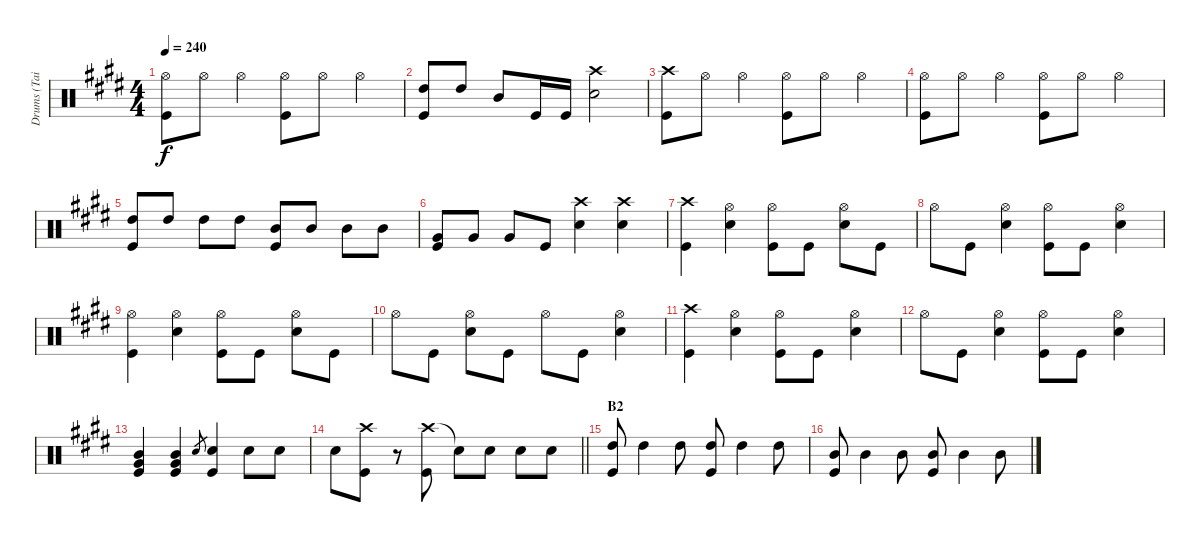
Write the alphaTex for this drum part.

\track ("Drums (Tainaka Ritsu)" "Drums (Tai") {instrument percussion}
\staff {score}
\articulation defaults
\ts (4 4)
\tempo 240
\clef neutral
\ks e
("Hi-Hat (open)" "Kick (hit)").8{dy f} "Hi-Hat (open)".8 "Hi-Hat (open)".4 ("Hi-Hat (open)" "Kick (hit)").8 "Hi-Hat (open)".8 "Hi-Hat (open)".4 |
("High Tom (hit)" "Kick (hit)").8 "High Tom (hit)".8 "Mid Tom (hit)".8 "Kick (hit)".16 "Kick (hit)".16 ("Crash high (hit)" "Snare (hit) 2").2 |
("Crash high (hit)" "Kick (hit)").8 "Hi-Hat (open)".8 "Hi-Hat (open)".4 ("Hi-Hat (open)" "Kick (hit)").8 "Hi-Hat (open)".8 "Hi-Hat (open)".4 |
("Hi-Hat (open)" "Kick (hit)").8 "Hi-Hat (open)".8 "Hi-Hat (open)".4 ("Hi-Hat (open)" "Kick (hit)").8 "Hi-Hat (open)".8 "Hi-Hat (open)".4 |
("High Tom (hit)" "Kick (hit)").8 "High Tom (hit)".8 "High Tom (hit)".8 "High Tom (hit)".8 ("Mid Tom (hit)" "Kick (hit)").8 "Mid Tom (hit)".8 "Mid Tom (hit)".8 "Mid Tom (hit)".8 |
("Very Low Tom (hit)" "Kick (hit)").8 "Very Low Tom (hit)".8 "Very Low Tom (hit)".8 "Kick (hit)".8 ("Crash high (hit)" "Snare (hit) 2").4 ("Crash high (hit)" "Snare (hit) 2").4 |
("Crash high (hit)" "Kick (hit)").4 ("Hi-Hat (open)" "Snare (hit) 2").4 ("Hi-Hat (open)" "Kick (hit)").8 "Kick (hit)".8 ("Hi-Hat (open)" "Snare (hit) 2").8 "Kick (hit)".8 |
"Hi-Hat (open)".8 "Kick (hit)".8 ("Hi-Hat (open)" "Snare (hit) 2").4 ("Hi-Hat (open)" "Kick (hit)").8 "Kick (hit)".8 ("Hi-Hat (open)" "Snare (hit) 2").4 |
("Hi-Hat (open)" "Kick (hit)").4 ("Hi-Hat (open)" "Snare (hit) 2").4 ("Hi-Hat (open)" "Kick (hit)").8 "Kick (hit)".8 ("Hi-Hat (open)" "Snare (hit) 2").8 "Kick (hit)".8 |
"Hi-Hat (open)".8 "Kick (hit)".8 ("Hi-Hat (open)" "Snare (hit) 2").8 "Kick (hit)".8 "Hi-Hat (open)".8 "Kick (hit)".8 ("Hi-Hat (open)" "Snare (hit) 2").4 |
("Crash high (hit)" "Kick (hit)").4 ("Hi-Hat (open)" "Snare (hit) 2").4 ("Hi-Hat (open)" "Kick (hit)").8 "Kick (hit)".8 ("Hi-Hat (open)" "Snare (hit) 2").4 |
"Hi-Hat (open)".8 "Kick (hit)".8 ("Hi-Hat (open)" "Snare (hit) 2").4 ("Hi-Hat (open)" "Kick (hit)").8 "Kick (hit)".8 ("Hi-Hat (open)" "Snare (hit) 2").4 |
("Mid Tom (hit)" "Very Low Tom (hit)" "Kick (hit)").4 ("Mid Tom (hit)" "Very Low Tom (hit)" "Kick (hit)").4 "Snare (hit) 2".8{gr} ("Snare (hit) 2" "Kick (hit)").4 "Snare (hit) 2".8 "Snare (hit) 2".8 |
\barLineRight lightlight "Snare (hit) 2".8
("Crash high (hit)" "Kick (hit)").8 r.8 ("Crash high (hit)" "Kick (hit)").8 "Snare (hit)"{t}.8 "Snare (hit) 2".8 "Snare (hit) 2".8 "Snare (hit) 2".8 |
\section ("" "B2")
("High Tom (hit)" "Kick (hit)").8 "High Tom (hit)".4 "High Tom (hit)".8 ("High Tom (hit)" "Kick (hit)").8 "High Tom (hit)".4 "High Tom (hit)".8 |
("Mid Tom (hit)" "Kick (hit)").8 "Mid Tom (hit)".4 "Mid Tom (hit)".8 ("Mid Tom (hit)" "Kick (hit)").8 "Mid Tom (hit)".4 "Mid Tom (hit)".8
